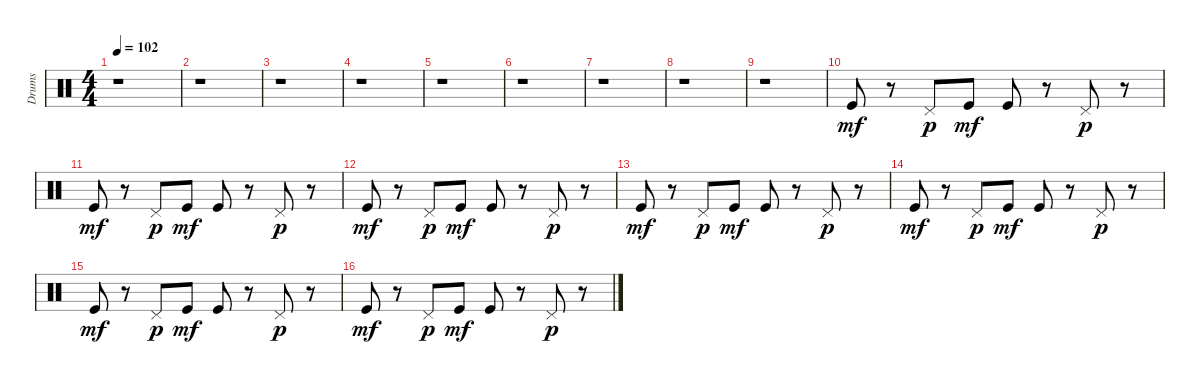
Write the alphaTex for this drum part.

\track ("Drums" "Drums") {instrument percussion}
\staff {score}
\articulation defaults
\ts (4 4)
\tempo 102
\clef neutral
\ks c
r.1{dy mf} |
r.1 |
r.1 |
r.1 |
r.1 |
r.1 |
r.1 |
r.1 |
r.1 |
"Kick (hit)".8 r.8 "Pedal Hi-Hat (hit)".8{dy p} "Kick (hit)".8{dy mf} "Kick (hit)".8 r.8 "Pedal Hi-Hat (hit)".8{dy p} r.8 |
"Kick (hit)".8{dy mf} r.8 "Pedal Hi-Hat (hit)".8{dy p} "Kick (hit)".8{dy mf} "Kick (hit)".8 r.8 "Pedal Hi-Hat (hit)".8{dy p} r.8 |
"Kick (hit)".8{dy mf} r.8 "Pedal Hi-Hat (hit)".8{dy p} "Kick (hit)".8{dy mf} "Kick (hit)".8 r.8 "Pedal Hi-Hat (hit)".8{dy p} r.8 |
"Kick (hit)".8{dy mf} r.8 "Pedal Hi-Hat (hit)".8{dy p} "Kick (hit)".8{dy mf} "Kick (hit)".8 r.8 "Pedal Hi-Hat (hit)".8{dy p} r.8 |
"Kick (hit)".8{dy mf} r.8 "Pedal Hi-Hat (hit)".8{dy p} "Kick (hit)".8{dy mf} "Kick (hit)".8 r.8 "Pedal Hi-Hat (hit)".8{dy p} r.8 |
"Kick (hit)".8{dy mf} r.8 "Pedal Hi-Hat (hit)".8{dy p} "Kick (hit)".8{dy mf} "Kick (hit)".8 r.8 "Pedal Hi-Hat (hit)".8{dy p} r.8 |
"Kick (hit)".8{dy mf} r.8 "Pedal Hi-Hat (hit)".8{dy p} "Kick (hit)".8{dy mf} "Kick (hit)".8 r.8 "Pedal Hi-Hat (hit)".8{dy p} r.8
